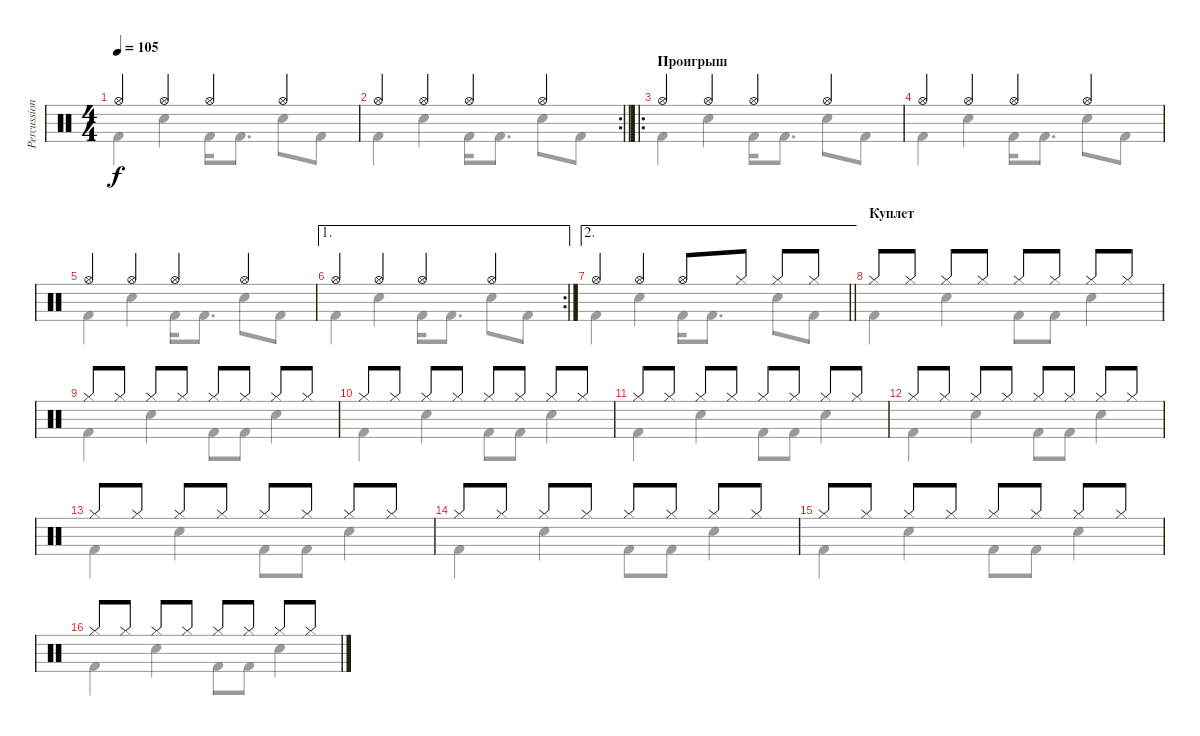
\track ("Percussion" "Percussion") {instrument percussion}
\staff {score}
\articulation defaults
\voice
\ts (4 4)
\tempo 105
\clef neutral
\ks c "Hi-Hat (open)".4{dy f} "Hi-Hat (open)".4 "Hi-Hat (open)".4 "Hi-Hat (open)".4
|
\rc 2
\barLineRight lightlight "Hi-Hat (open)".4 "Hi-Hat (open)".4 "Hi-Hat (open)".4 "Hi-Hat (open)".4
|
\ro
\section ("" "Проигрыш")
"Hi-Hat (open)".4 "Hi-Hat (open)".4 "Hi-Hat (open)".4 "Hi-Hat (open)".4 |
"Hi-Hat (open)".4 "Hi-Hat (open)".4 "Hi-Hat (open)".4 "Hi-Hat (open)".4 |
"Hi-Hat (open)".4 "Hi-Hat (open)".4 "Hi-Hat (open)".4 "Hi-Hat (open)".4 |
\ae 1
\rc 2 "Hi-Hat (open)".4 "Hi-Hat (open)".4 "Hi-Hat (open)".4 "Hi-Hat (open)".4
|
\ae 2
\barLineRight lightlight "Hi-Hat (open)".4 "Hi-Hat (open)".4 "Hi-Hat (open)".8 "Hi-Hat (closed)".8 "Hi-Hat (closed)".8 "Hi-Hat (closed)".8
|
\section ("" "Куплет")
"Hi-Hat (closed)".8 "Hi-Hat (closed)".8 "Hi-Hat (closed)".8 "Hi-Hat (closed)".8 "Hi-Hat (closed)".8 "Hi-Hat (closed)".8 "Hi-Hat (closed)".8 "Hi-Hat (closed)".8 |
"Hi-Hat (closed)".8 "Hi-Hat (closed)".8 "Hi-Hat (closed)".8 "Hi-Hat (closed)".8 "Hi-Hat (closed)".8 "Hi-Hat (closed)".8 "Hi-Hat (closed)".8 "Hi-Hat (closed)".8 |
"Hi-Hat (closed)".8 "Hi-Hat (closed)".8 "Hi-Hat (closed)".8 "Hi-Hat (closed)".8 "Hi-Hat (closed)".8 "Hi-Hat (closed)".8 "Hi-Hat (closed)".8 "Hi-Hat (closed)".8 |
"Hi-Hat (closed)".8 "Hi-Hat (closed)".8 "Hi-Hat (closed)".8 "Hi-Hat (closed)".8 "Hi-Hat (closed)".8 "Hi-Hat (closed)".8 "Hi-Hat (closed)".8 "Hi-Hat (closed)".8 |
"Hi-Hat (closed)".8 "Hi-Hat (closed)".8 "Hi-Hat (closed)".8 "Hi-Hat (closed)".8 "Hi-Hat (closed)".8 "Hi-Hat (closed)".8 "Hi-Hat (closed)".8 "Hi-Hat (closed)".8 |
"Hi-Hat (closed)".8 "Hi-Hat (closed)".8 "Hi-Hat (closed)".8 "Hi-Hat (closed)".8 "Hi-Hat (closed)".8 "Hi-Hat (closed)".8 "Hi-Hat (closed)".8 "Hi-Hat (closed)".8 |
"Hi-Hat (closed)".8 "Hi-Hat (closed)".8 "Hi-Hat (closed)".8 "Hi-Hat (closed)".8 "Hi-Hat (closed)".8 "Hi-Hat (closed)".8 "Hi-Hat (closed)".8 "Hi-Hat (closed)".8 |
"Hi-Hat (closed)".8 "Hi-Hat (closed)".8 "Hi-Hat (closed)".8 "Hi-Hat (closed)".8 "Hi-Hat (closed)".8 "Hi-Hat (closed)".8 "Hi-Hat (closed)".8 "Hi-Hat (closed)".8 |
"Hi-Hat (closed)".8 "Hi-Hat (closed)".8 "Hi-Hat (closed)".8 "Hi-Hat (closed)".8 "Hi-Hat (closed)".8 "Hi-Hat (closed)".8 "Hi-Hat (closed)".8 "Hi-Hat (closed)".8
\voice
\clef neutral
\ottava regular
\simile none
\ks c "Kick (hit) 2".4{dy f} "Electric Snare (hit)".4 "Kick (hit) 2".16 "Kick (hit) 2".8{d} "Electric Snare (hit)".8 "Kick (hit) 2".8
|
\barLineRight lightlight "Kick (hit) 2".4 "Electric Snare (hit)".4 "Kick (hit) 2".16 "Kick (hit) 2".8{d} "Electric Snare (hit)".8 "Kick (hit) 2".8
|
"Kick (hit) 2".4 "Electric Snare (hit)".4 "Kick (hit) 2".16 "Kick (hit) 2".8{d} "Electric Snare (hit)".8 "Kick (hit) 2".8 |
"Kick (hit) 2".4 "Electric Snare (hit)".4 "Kick (hit) 2".16 "Kick (hit) 2".8{d} "Electric Snare (hit)".8 "Kick (hit) 2".8 |
"Kick (hit) 2".4 "Electric Snare (hit)".4 "Kick (hit) 2".16 "Kick (hit) 2".8{d} "Electric Snare (hit)".8 "Kick (hit) 2".8 |
"Kick (hit) 2".4 "Electric Snare (hit)".4 "Kick (hit) 2".16 "Kick (hit) 2".8{d} "Electric Snare (hit)".8 "Kick (hit) 2".8 |
\barLineRight lightlight "Kick (hit) 2".4 "Electric Snare (hit)".4 "Kick (hit) 2".16 "Kick (hit) 2".8{d} "Electric Snare (hit)".8 "Kick (hit) 2".8
|
"Kick (hit) 2".4 "Electric Snare (hit)".4 "Kick (hit) 2".8 "Kick (hit) 2".8 "Electric Snare (hit)".4 |
"Kick (hit) 2".4 "Electric Snare (hit)".4 "Kick (hit) 2".8 "Kick (hit) 2".8 "Electric Snare (hit)".4 |
"Kick (hit) 2".4 "Electric Snare (hit)".4 "Kick (hit) 2".8 "Kick (hit) 2".8 "Electric Snare (hit)".4 |
"Kick (hit) 2".4 "Electric Snare (hit)".4 "Kick (hit) 2".8 "Kick (hit) 2".8 "Electric Snare (hit)".4 |
"Kick (hit) 2".4 "Electric Snare (hit)".4 "Kick (hit) 2".8 "Kick (hit) 2".8 "Electric Snare (hit)".4 |
"Kick (hit) 2".4 "Electric Snare (hit)".4 "Kick (hit) 2".8 "Kick (hit) 2".8 "Electric Snare (hit)".4 |
"Kick (hit) 2".4 "Electric Snare (hit)".4 "Kick (hit) 2".8 "Kick (hit) 2".8 "Electric Snare (hit)".4 |
"Kick (hit) 2".4 "Electric Snare (hit)".4 "Kick (hit) 2".8 "Kick (hit) 2".8 "Electric Snare (hit)".4 |
"Kick (hit) 2".4 "Electric Snare (hit)".4 "Kick (hit) 2".8 "Kick (hit) 2".8 "Electric Snare (hit)".4
